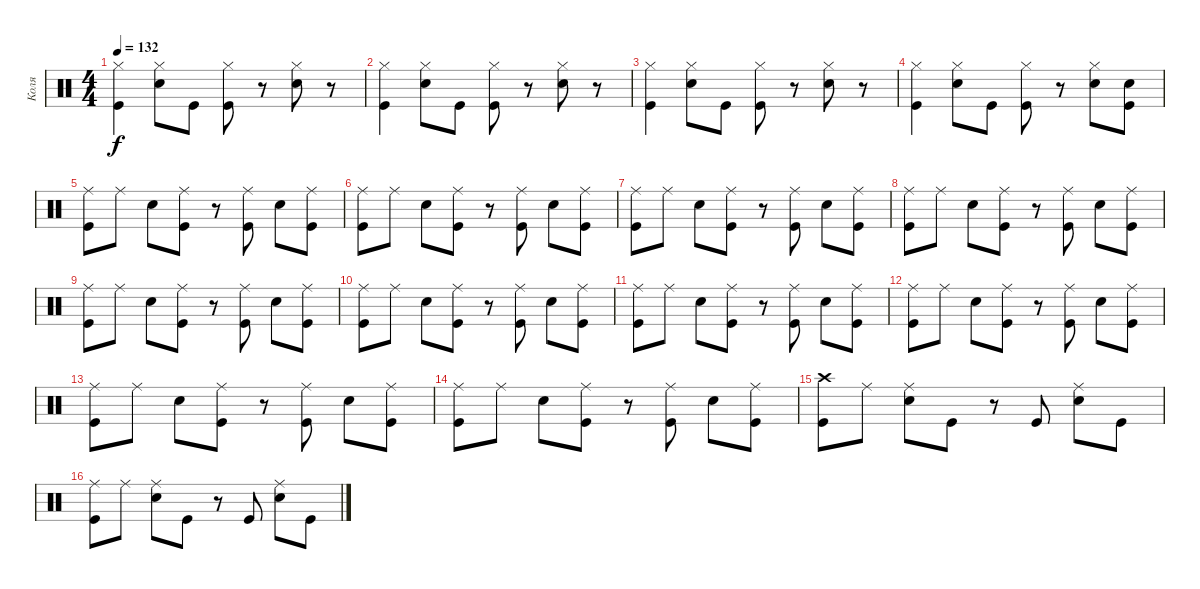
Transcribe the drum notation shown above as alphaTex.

\track ("Коля" "Коля") {instrument percussion}
\staff {score}
\articulation defaults
\ts (4 4)
\tempo 132
\clef neutral
\ks c
("Hi-Hat (closed)" "Kick (hit)").4{dy f} ("Hi-Hat (closed)" "Snare (hit) 2").8 "Kick (hit)".8 ("Hi-Hat (closed)" "Kick (hit)").8 r.8 ("Hi-Hat (closed)" "Snare (hit) 2").8 r.8 |
("Hi-Hat (closed)" "Kick (hit)").4 ("Hi-Hat (closed)" "Snare (hit) 2").8 "Kick (hit)".8 ("Hi-Hat (closed)" "Kick (hit)").8 r.8 ("Hi-Hat (closed)" "Snare (hit) 2").8 r.8 |
("Hi-Hat (closed)" "Kick (hit)").4 ("Hi-Hat (closed)" "Snare (hit) 2").8 "Kick (hit)".8 ("Hi-Hat (closed)" "Kick (hit)").8 r.8 ("Hi-Hat (closed)" "Snare (hit) 2").8 r.8 |
("Hi-Hat (closed)" "Kick (hit)").4 ("Hi-Hat (closed)" "Snare (hit) 2").8 "Kick (hit)".8 ("Hi-Hat (closed)" "Kick (hit)").8 r.8 ("Hi-Hat (closed)" "Snare (hit) 2").8 ("Snare (hit) 2" "Kick (hit)").8 |
("Ride (middle)" "Kick (hit)").8 "Ride (middle)".8 "Snare (hit) 2".8 ("Ride (middle)" "Kick (hit)").8 r.8 ("Ride (middle)" "Kick (hit)").8 "Snare (hit) 2".8 ("Ride (middle)" "Kick (hit)").8 |
("Ride (middle)" "Kick (hit)").8 "Ride (middle)".8 "Snare (hit) 2".8 ("Ride (middle)" "Kick (hit)").8 r.8 ("Ride (middle)" "Kick (hit)").8 "Snare (hit) 2".8 ("Ride (middle)" "Kick (hit)").8 |
("Ride (middle)" "Kick (hit)").8 "Ride (middle)".8 "Snare (hit) 2".8 ("Ride (middle)" "Kick (hit)").8 r.8 ("Ride (middle)" "Kick (hit)").8 "Snare (hit) 2".8 ("Ride (middle)" "Kick (hit)").8 |
("Ride (middle)" "Kick (hit)").8 "Ride (middle)".8 "Snare (hit) 2".8 ("Ride (middle)" "Kick (hit)").8 r.8 ("Ride (middle)" "Kick (hit)").8 "Snare (hit) 2".8 ("Ride (middle)" "Kick (hit)").8 |
("Ride (middle)" "Kick (hit)").8 "Ride (middle)".8 "Snare (hit) 2".8 ("Ride (middle)" "Kick (hit)").8 r.8 ("Ride (middle)" "Kick (hit)").8 "Snare (hit) 2".8 ("Ride (middle)" "Kick (hit)").8 |
("Ride (middle)" "Kick (hit)").8 "Ride (middle)".8 "Snare (hit) 2".8 ("Ride (middle)" "Kick (hit)").8 r.8 ("Ride (middle)" "Kick (hit)").8 "Snare (hit) 2".8 ("Ride (middle)" "Kick (hit)").8 |
("Ride (middle)" "Kick (hit)").8 "Ride (middle)".8 "Snare (hit) 2".8 ("Ride (middle)" "Kick (hit)").8 r.8 ("Ride (middle)" "Kick (hit)").8 "Snare (hit) 2".8 ("Ride (middle)" "Kick (hit)").8 |
("Ride (middle)" "Kick (hit)").8 "Ride (middle)".8 "Snare (hit) 2".8 ("Ride (middle)" "Kick (hit)").8 r.8 ("Ride (middle)" "Kick (hit)").8 "Snare (hit) 2".8 ("Ride (middle)" "Kick (hit)").8 |
("Ride (middle)" "Kick (hit)").8 "Ride (middle)".8 "Snare (hit) 2".8 ("Ride (middle)" "Kick (hit)").8 r.8 ("Ride (middle)" "Kick (hit)").8 "Snare (hit) 2".8 ("Ride (middle)" "Kick (hit)").8 |
("Ride (middle)" "Kick (hit)").8 "Ride (middle)".8 "Snare (hit) 2".8 ("Ride (middle)" "Kick (hit)").8 r.8 ("Ride (middle)" "Kick (hit)").8 "Snare (hit) 2".8 ("Ride (middle)" "Kick (hit)").8 |
("Crash high (hit)" "Kick (hit)").8 "Ride (middle)".8 ("Ride (middle)" "Snare (hit) 2").8 "Kick (hit)".8 r.8 "Kick (hit)".8 ("Ride (middle)" "Snare (hit) 2").8 "Kick (hit)".8 |
("Ride (middle)" "Kick (hit)").8 "Ride (middle)".8 ("Ride (middle)" "Snare (hit) 2").8 "Kick (hit)".8 r.8 "Kick (hit)".8 ("Ride (middle)" "Snare (hit) 2").8 "Kick (hit)".8
